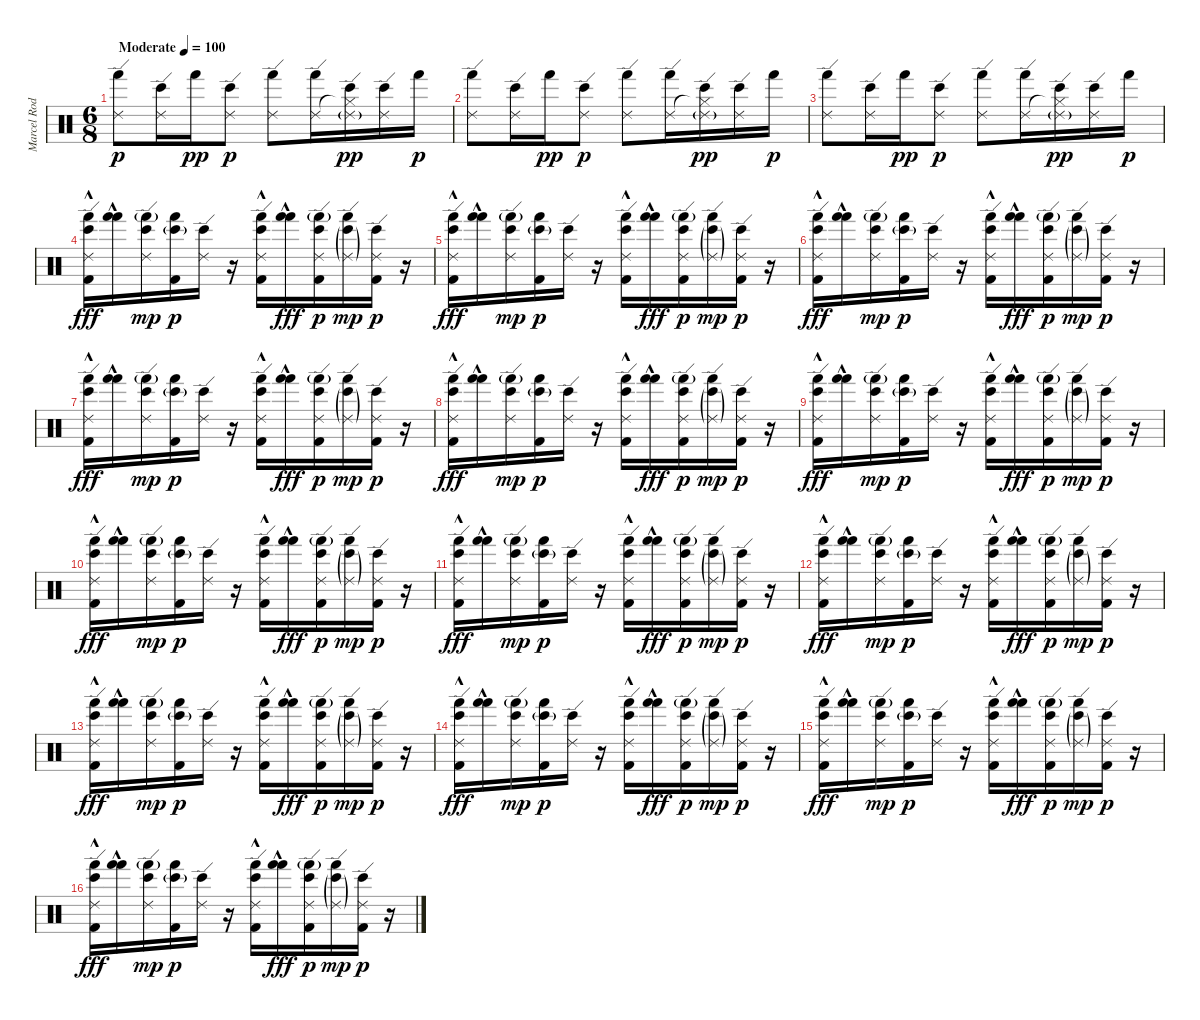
\track ("Marcel Rodriguez & Thomas Pridgen" "Marcel Rod") {instrument percussion}
\staff {score}
\articulation defaults
\ts (6 8)
\tempo (100 "Moderate")
\clef neutral
\ks c
("Ride (edge) 2" "Hand (hit)").8{dy p} ("Ride (edge) 2" "Bongo High (hit)").16 "Hand (hit)".16{dy pp} ("Ride (edge) 2" "Bongo High (hit)").8{dy p} ("Ride (edge) 2" "Hand (hit)").8 ("Ride (edge) 2" "Hand (hit)").16 ("Hi-Hat (closed)"{t} "Ride (edge) 2"{g} "Bongo High (hit)").16{dy pp} ("Ride (edge) 2" "Bongo High (hit)").16 "Hand (hit)".16{dy p} |
("Ride (edge) 2" "Hand (hit)").8 ("Ride (edge) 2" "Bongo High (hit)").16 "Hand (hit)".16{dy pp} ("Ride (edge) 2" "Bongo High (hit)").8{dy p} ("Ride (edge) 2" "Hand (hit)").8 ("Ride (edge) 2" "Hand (hit)").16 ("Hi-Hat (closed)"{t} "Ride (edge) 2"{g} "Bongo High (hit)").16{dy pp} ("Ride (edge) 2" "Bongo High (hit)").16 "Hand (hit)".16{dy p} |
("Ride (edge) 2" "Hand (hit)").8 ("Ride (edge) 2" "Bongo High (hit)").16 "Hand (hit)".16{dy pp} ("Ride (edge) 2" "Bongo High (hit)").8{dy p} ("Ride (edge) 2" "Hand (hit)").8 ("Ride (edge) 2" "Hand (hit)").16 ("Hi-Hat (closed)"{t} "Ride (edge) 2"{g} "Bongo High (hit)").16{dy pp} ("Ride (edge) 2" "Bongo High (hit)").16 "Hand (hit)".16{dy p} |
("Ride (edge) 2" "Bongo High (hit)" "Hand (hit)"{hac} "Kick (hit) 2").16{dy fff} ("Hand (hit)" "Hand (hit)"{hac}).16 ("Ride (edge) 2" "Bongo High (hit)" "Hand (hit)"{g}).16{dy mp} ("Hand (hit)" "Bongo High (hit)"{g} "Kick (hit) 2").16{dy p} ("Ride (edge) 2" "Bongo High (hit)").16 r.16 ("Ride (edge) 2" "Bongo High (hit)" "Hand (hit)"{hac} "Kick (hit) 2").16 ("Hand (hit)" "Hand (hit)"{hac}).16{dy fff} ("Ride (edge) 2" "Bongo High (hit)" "Hand (hit)"{g} "Kick (hit) 2").16{dy p} ("Ride (edge) 2"{g} "Hand (hit)" "Bongo High (hit)"{g}).16{dy mp} ("Ride (edge) 2" "Bongo High (hit)" "Kick (hit) 2").16{dy p} r.16 |
("Ride (edge) 2" "Bongo High (hit)" "Hand (hit)"{hac} "Kick (hit) 2").16{dy fff} ("Hand (hit)" "Hand (hit)"{hac}).16 ("Ride (edge) 2" "Bongo High (hit)" "Hand (hit)"{g}).16{dy mp} ("Hand (hit)" "Bongo High (hit)"{g} "Kick (hit) 2").16{dy p} ("Ride (edge) 2" "Bongo High (hit)").16 r.16 ("Ride (edge) 2" "Bongo High (hit)" "Hand (hit)"{hac} "Kick (hit) 2").16 ("Hand (hit)" "Hand (hit)"{hac}).16{dy fff} ("Ride (edge) 2" "Bongo High (hit)" "Hand (hit)"{g} "Kick (hit) 2").16{dy p} ("Ride (edge) 2"{g} "Hand (hit)" "Bongo High (hit)"{g}).16{dy mp} ("Ride (edge) 2" "Bongo High (hit)" "Kick (hit) 2").16{dy p} r.16 |
("Ride (edge) 2" "Bongo High (hit)" "Hand (hit)"{hac} "Kick (hit) 2").16{dy fff} ("Hand (hit)" "Hand (hit)"{hac}).16 ("Ride (edge) 2" "Bongo High (hit)" "Hand (hit)"{g}).16{dy mp} ("Hand (hit)" "Bongo High (hit)"{g} "Kick (hit) 2").16{dy p} ("Ride (edge) 2" "Bongo High (hit)").16 r.16 ("Ride (edge) 2" "Bongo High (hit)" "Hand (hit)"{hac} "Kick (hit) 2").16 ("Hand (hit)" "Hand (hit)"{hac}).16{dy fff} ("Ride (edge) 2" "Bongo High (hit)" "Hand (hit)"{g} "Kick (hit) 2").16{dy p} ("Ride (edge) 2"{g} "Hand (hit)" "Bongo High (hit)"{g}).16{dy mp} ("Ride (edge) 2" "Bongo High (hit)" "Kick (hit) 2").16{dy p} r.16 |
("Ride (edge) 2" "Bongo High (hit)" "Hand (hit)"{hac} "Kick (hit) 2").16{dy fff} ("Hand (hit)" "Hand (hit)"{hac}).16 ("Ride (edge) 2" "Bongo High (hit)" "Hand (hit)"{g}).16{dy mp} ("Hand (hit)" "Bongo High (hit)"{g} "Kick (hit) 2").16{dy p} ("Ride (edge) 2" "Bongo High (hit)").16 r.16 ("Ride (edge) 2" "Bongo High (hit)" "Hand (hit)"{hac} "Kick (hit) 2").16 ("Hand (hit)" "Hand (hit)"{hac}).16{dy fff} ("Ride (edge) 2" "Bongo High (hit)" "Hand (hit)"{g} "Kick (hit) 2").16{dy p} ("Ride (edge) 2"{g} "Hand (hit)" "Bongo High (hit)"{g}).16{dy mp} ("Ride (edge) 2" "Bongo High (hit)" "Kick (hit) 2").16{dy p} r.16 |
("Ride (edge) 2" "Bongo High (hit)" "Hand (hit)"{hac} "Kick (hit) 2").16{dy fff} ("Hand (hit)" "Hand (hit)"{hac}).16 ("Ride (edge) 2" "Bongo High (hit)" "Hand (hit)"{g}).16{dy mp} ("Hand (hit)" "Bongo High (hit)"{g} "Kick (hit) 2").16{dy p} ("Ride (edge) 2" "Bongo High (hit)").16 r.16 ("Ride (edge) 2" "Bongo High (hit)" "Hand (hit)"{hac} "Kick (hit) 2").16 ("Hand (hit)" "Hand (hit)"{hac}).16{dy fff} ("Ride (edge) 2" "Bongo High (hit)" "Hand (hit)"{g} "Kick (hit) 2").16{dy p} ("Ride (edge) 2"{g} "Hand (hit)" "Bongo High (hit)"{g}).16{dy mp} ("Ride (edge) 2" "Bongo High (hit)" "Kick (hit) 2").16{dy p} r.16 |
("Ride (edge) 2" "Bongo High (hit)" "Hand (hit)"{hac} "Kick (hit) 2").16{dy fff} ("Hand (hit)" "Hand (hit)"{hac}).16 ("Ride (edge) 2" "Bongo High (hit)" "Hand (hit)"{g}).16{dy mp} ("Hand (hit)" "Bongo High (hit)"{g} "Kick (hit) 2").16{dy p} ("Ride (edge) 2" "Bongo High (hit)").16 r.16 ("Ride (edge) 2" "Bongo High (hit)" "Hand (hit)"{hac} "Kick (hit) 2").16 ("Hand (hit)" "Hand (hit)"{hac}).16{dy fff} ("Ride (edge) 2" "Bongo High (hit)" "Hand (hit)"{g} "Kick (hit) 2").16{dy p} ("Ride (edge) 2"{g} "Hand (hit)" "Bongo High (hit)"{g}).16{dy mp} ("Ride (edge) 2" "Bongo High (hit)" "Kick (hit) 2").16{dy p} r.16 |
("Ride (edge) 2" "Bongo High (hit)" "Hand (hit)"{hac} "Kick (hit) 2").16{dy fff} ("Hand (hit)" "Hand (hit)"{hac}).16 ("Ride (edge) 2" "Bongo High (hit)" "Hand (hit)"{g}).16{dy mp} ("Hand (hit)" "Bongo High (hit)"{g} "Kick (hit) 2").16{dy p} ("Ride (edge) 2" "Bongo High (hit)").16 r.16 ("Ride (edge) 2" "Bongo High (hit)" "Hand (hit)"{hac} "Kick (hit) 2").16 ("Hand (hit)" "Hand (hit)"{hac}).16{dy fff} ("Ride (edge) 2" "Bongo High (hit)" "Hand (hit)"{g} "Kick (hit) 2").16{dy p} ("Ride (edge) 2"{g} "Hand (hit)" "Bongo High (hit)"{g}).16{dy mp} ("Ride (edge) 2" "Bongo High (hit)" "Kick (hit) 2").16{dy p} r.16 |
("Ride (edge) 2" "Bongo High (hit)" "Hand (hit)"{hac} "Kick (hit) 2").16{dy fff} ("Hand (hit)" "Hand (hit)"{hac}).16 ("Ride (edge) 2" "Bongo High (hit)" "Hand (hit)"{g}).16{dy mp} ("Hand (hit)" "Bongo High (hit)"{g} "Kick (hit) 2").16{dy p} ("Ride (edge) 2" "Bongo High (hit)").16 r.16 ("Ride (edge) 2" "Bongo High (hit)" "Hand (hit)"{hac} "Kick (hit) 2").16 ("Hand (hit)" "Hand (hit)"{hac}).16{dy fff} ("Ride (edge) 2" "Bongo High (hit)" "Hand (hit)"{g} "Kick (hit) 2").16{dy p} ("Ride (edge) 2"{g} "Hand (hit)" "Bongo High (hit)"{g}).16{dy mp} ("Ride (edge) 2" "Bongo High (hit)" "Kick (hit) 2").16{dy p} r.16 |
("Ride (edge) 2" "Bongo High (hit)" "Hand (hit)"{hac} "Kick (hit) 2").16{dy fff} ("Hand (hit)" "Hand (hit)"{hac}).16 ("Ride (edge) 2" "Bongo High (hit)" "Hand (hit)"{g}).16{dy mp} ("Hand (hit)" "Bongo High (hit)"{g} "Kick (hit) 2").16{dy p} ("Ride (edge) 2" "Bongo High (hit)").16 r.16 ("Ride (edge) 2" "Bongo High (hit)" "Hand (hit)"{hac} "Kick (hit) 2").16 ("Hand (hit)" "Hand (hit)"{hac}).16{dy fff} ("Ride (edge) 2" "Bongo High (hit)" "Hand (hit)"{g} "Kick (hit) 2").16{dy p} ("Ride (edge) 2"{g} "Hand (hit)" "Bongo High (hit)"{g}).16{dy mp} ("Ride (edge) 2" "Bongo High (hit)" "Kick (hit) 2").16{dy p} r.16 |
("Ride (edge) 2" "Bongo High (hit)" "Hand (hit)"{hac} "Kick (hit) 2").16{dy fff} ("Hand (hit)" "Hand (hit)"{hac}).16 ("Ride (edge) 2" "Bongo High (hit)" "Hand (hit)"{g}).16{dy mp} ("Hand (hit)" "Bongo High (hit)"{g} "Kick (hit) 2").16{dy p} ("Ride (edge) 2" "Bongo High (hit)").16 r.16 ("Ride (edge) 2" "Bongo High (hit)" "Hand (hit)"{hac} "Kick (hit) 2").16 ("Hand (hit)" "Hand (hit)"{hac}).16{dy fff} ("Ride (edge) 2" "Bongo High (hit)" "Hand (hit)"{g} "Kick (hit) 2").16{dy p} ("Ride (edge) 2"{g} "Hand (hit)" "Bongo High (hit)"{g}).16{dy mp} ("Ride (edge) 2" "Bongo High (hit)" "Kick (hit) 2").16{dy p} r.16 |
("Ride (edge) 2" "Bongo High (hit)" "Hand (hit)"{hac} "Kick (hit) 2").16{dy fff} ("Hand (hit)" "Hand (hit)"{hac}).16 ("Ride (edge) 2" "Bongo High (hit)" "Hand (hit)"{g}).16{dy mp} ("Hand (hit)" "Bongo High (hit)"{g} "Kick (hit) 2").16{dy p} ("Ride (edge) 2" "Bongo High (hit)").16 r.16 ("Ride (edge) 2" "Bongo High (hit)" "Hand (hit)"{hac} "Kick (hit) 2").16 ("Hand (hit)" "Hand (hit)"{hac}).16{dy fff} ("Ride (edge) 2" "Bongo High (hit)" "Hand (hit)"{g} "Kick (hit) 2").16{dy p} ("Ride (edge) 2"{g} "Hand (hit)" "Bongo High (hit)"{g}).16{dy mp} ("Ride (edge) 2" "Bongo High (hit)" "Kick (hit) 2").16{dy p} r.16 |
("Ride (edge) 2" "Bongo High (hit)" "Hand (hit)"{hac} "Kick (hit) 2").16{dy fff} ("Hand (hit)" "Hand (hit)"{hac}).16 ("Ride (edge) 2" "Bongo High (hit)" "Hand (hit)"{g}).16{dy mp} ("Hand (hit)" "Bongo High (hit)"{g} "Kick (hit) 2").16{dy p} ("Ride (edge) 2" "Bongo High (hit)").16 r.16 ("Ride (edge) 2" "Bongo High (hit)" "Hand (hit)"{hac} "Kick (hit) 2").16 ("Hand (hit)" "Hand (hit)"{hac}).16{dy fff} ("Ride (edge) 2" "Bongo High (hit)" "Hand (hit)"{g} "Kick (hit) 2").16{dy p} ("Ride (edge) 2"{g} "Hand (hit)" "Bongo High (hit)"{g}).16{dy mp} ("Ride (edge) 2" "Bongo High (hit)" "Kick (hit) 2").16{dy p} r.16 |
("Ride (edge) 2" "Bongo High (hit)" "Hand (hit)"{hac} "Kick (hit) 2").16{dy fff} ("Hand (hit)" "Hand (hit)"{hac}).16 ("Ride (edge) 2" "Bongo High (hit)" "Hand (hit)"{g}).16{dy mp} ("Hand (hit)" "Bongo High (hit)"{g} "Kick (hit) 2").16{dy p} ("Ride (edge) 2" "Bongo High (hit)").16 r.16 ("Ride (edge) 2" "Bongo High (hit)" "Hand (hit)"{hac} "Kick (hit) 2").16 ("Hand (hit)" "Hand (hit)"{hac}).16{dy fff} ("Ride (edge) 2" "Bongo High (hit)" "Hand (hit)"{g} "Kick (hit) 2").16{dy p} ("Ride (edge) 2"{g} "Hand (hit)" "Bongo High (hit)"{g}).16{dy mp} ("Ride (edge) 2" "Bongo High (hit)" "Kick (hit) 2").16{dy p} r.16
